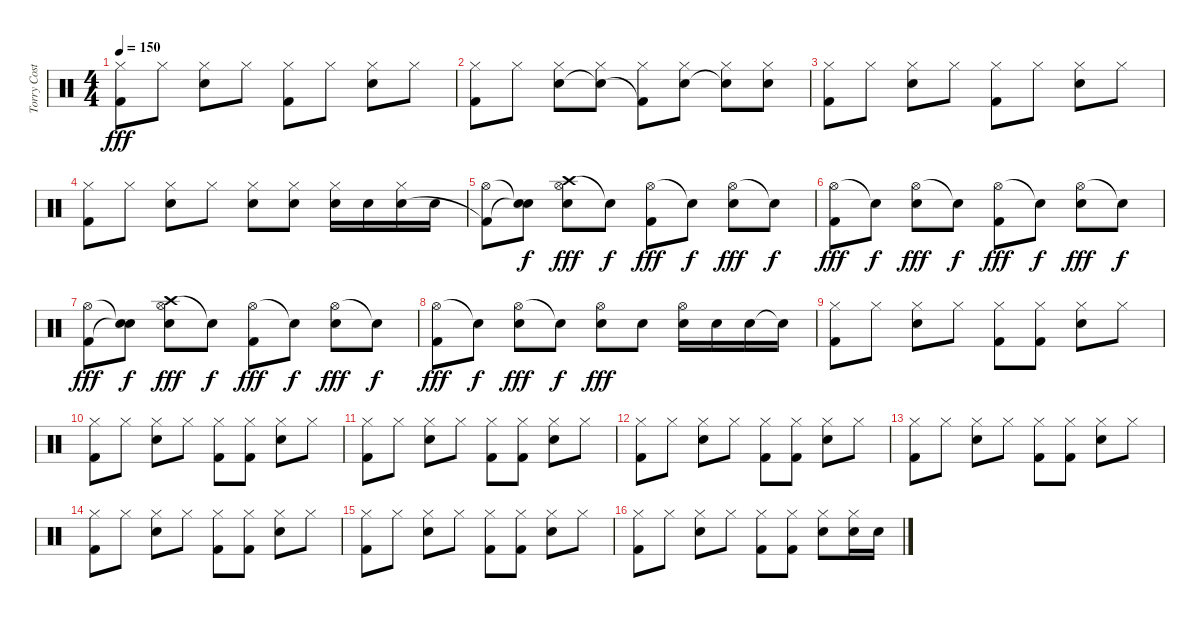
\track ("Torry Costellano" "Torry Cost") {instrument percussion}
\staff {score}
\articulation defaults
\ts (4 4)
\tempo 150
\clef neutral
\ks c
("Hi-Hat (closed)" "Kick (hit) 2").8{dy fff} "Hi-Hat (closed)".8 ("Hi-Hat (closed)" "Electric Snare (hit)").8 "Hi-Hat (closed)".8 ("Hi-Hat (closed)" "Kick (hit) 2").8 "Hi-Hat (closed)".8 ("Hi-Hat (closed)" "Electric Snare (hit)").8 "Hi-Hat (closed)".8 |
("Hi-Hat (closed)" "Kick (hit) 2").8 "Hi-Hat (closed)".8 ("Hi-Hat (closed)" "Electric Snare (hit)").8 ("Hi-Hat (closed)" "Electric Snare (hit)"{t}).8 ("Hi-Hat (closed)" "Kick (hit) 2"{t}).8 ("Hi-Hat (closed)" "Electric Snare (hit)").8 ("Hi-Hat (closed)" "Electric Snare (hit)"{t}).8 ("Hi-Hat (closed)" "Electric Snare (hit)").8 |
("Hi-Hat (closed)" "Kick (hit) 2").8 "Hi-Hat (closed)".8 ("Hi-Hat (closed)" "Electric Snare (hit)").8 "Hi-Hat (closed)".8 ("Hi-Hat (closed)" "Kick (hit) 2").8 "Hi-Hat (closed)".8 ("Hi-Hat (closed)" "Electric Snare (hit)").8 "Hi-Hat (closed)".8 |
("Hi-Hat (closed)" "Kick (hit) 2").8 "Hi-Hat (closed)".8 ("Hi-Hat (closed)" "Electric Snare (hit)").8 "Hi-Hat (closed)".8 ("Hi-Hat (closed)" "Electric Snare (hit)").8 ("Hi-Hat (closed)" "Electric Snare (hit)").8 ("Hi-Hat (closed)" "Electric Snare (hit)").16 "Electric Snare (hit)".16 ("Hi-Hat (closed)" "Electric Snare (hit)").16 "Electric Snare (hit)".16 |
("Hi-Hat (open)" "Kick (hit) 2"{t}).8 ("Snare (hit)"{t} "Snare (hit)"{t}).8{dy f} ("Crash high (hit)" "Hi-Hat (open)" "Electric Snare (hit)").8{dy fff} "Snare (hit)"{t}.8{dy f} ("Hi-Hat (open)" "Kick (hit) 2").8{dy fff} "Snare (hit)"{t}.8{dy f} ("Hi-Hat (open)" "Electric Snare (hit)").8{dy fff} "Snare (hit)"{t}.8{dy f} |
("Hi-Hat (open)" "Kick (hit) 2").8{dy fff} "Snare (hit)"{t}.8{dy f} ("Hi-Hat (open)" "Electric Snare (hit)").8{dy fff} "Snare (hit)"{t}.8{dy f} ("Hi-Hat (open)" "Kick (hit) 2").8{dy fff} "Snare (hit)"{t}.8{dy f} ("Hi-Hat (open)" "Electric Snare (hit)").8{dy fff} "Snare (hit)"{t}.8{dy f} |
("Hi-Hat (open)" "Kick (hit) 2").8{dy fff} ("Snare (hit)"{t} "Snare (hit)"{t}).8{dy f} ("Crash high (hit)" "Hi-Hat (open)" "Electric Snare (hit)").8{dy fff} "Snare (hit)"{t}.8{dy f} ("Hi-Hat (open)" "Kick (hit) 2").8{dy fff} "Snare (hit)"{t}.8{dy f} ("Hi-Hat (open)" "Electric Snare (hit)").8{dy fff} "Snare (hit)"{t}.8{dy f} |
("Hi-Hat (open)" "Kick (hit) 2").8{dy fff} "Snare (hit)"{t}.8{dy f} ("Hi-Hat (open)" "Electric Snare (hit)").8{dy fff} "Snare (hit)"{t}.8{dy f} ("Hi-Hat (open)" "Electric Snare (hit)").8{dy fff} "Electric Snare (hit)".8 ("Hi-Hat (open)" "Electric Snare (hit)").16 "Electric Snare (hit)".16 "Electric Snare (hit)".16 "Snare (hit)"{t}.16 |
("Hi-Hat (closed)" "Kick (hit) 2").8 "Hi-Hat (closed)".8 ("Hi-Hat (closed)" "Electric Snare (hit)").8 "Hi-Hat (closed)".8 ("Hi-Hat (closed)" "Kick (hit) 2").8 ("Hi-Hat (closed)" "Kick (hit) 2").8 ("Hi-Hat (closed)" "Electric Snare (hit)").8 "Hi-Hat (closed)".8 |
("Hi-Hat (closed)" "Kick (hit) 2").8 "Hi-Hat (closed)".8 ("Hi-Hat (closed)" "Electric Snare (hit)").8 "Hi-Hat (closed)".8 ("Hi-Hat (closed)" "Kick (hit) 2").8 ("Hi-Hat (closed)" "Kick (hit) 2").8 ("Hi-Hat (closed)" "Electric Snare (hit)").8 "Hi-Hat (closed)".8 |
("Hi-Hat (closed)" "Kick (hit) 2").8 "Hi-Hat (closed)".8 ("Hi-Hat (closed)" "Electric Snare (hit)").8 "Hi-Hat (closed)".8 ("Hi-Hat (closed)" "Kick (hit) 2").8 ("Hi-Hat (closed)" "Kick (hit) 2").8 ("Hi-Hat (closed)" "Electric Snare (hit)").8 "Hi-Hat (closed)".8 |
("Hi-Hat (closed)" "Kick (hit) 2").8 "Hi-Hat (closed)".8 ("Hi-Hat (closed)" "Electric Snare (hit)").8 "Hi-Hat (closed)".8 ("Hi-Hat (closed)" "Kick (hit) 2").8 ("Hi-Hat (closed)" "Kick (hit) 2").8 ("Hi-Hat (closed)" "Electric Snare (hit)").8 "Hi-Hat (closed)".8 |
("Hi-Hat (closed)" "Kick (hit) 2").8 "Hi-Hat (closed)".8 ("Hi-Hat (closed)" "Electric Snare (hit)").8 "Hi-Hat (closed)".8 ("Hi-Hat (closed)" "Kick (hit) 2").8 ("Hi-Hat (closed)" "Kick (hit) 2").8 ("Hi-Hat (closed)" "Electric Snare (hit)").8 "Hi-Hat (closed)".8 |
("Hi-Hat (closed)" "Kick (hit) 2").8 "Hi-Hat (closed)".8 ("Hi-Hat (closed)" "Electric Snare (hit)").8 "Hi-Hat (closed)".8 ("Hi-Hat (closed)" "Kick (hit) 2").8 ("Hi-Hat (closed)" "Kick (hit) 2").8 ("Hi-Hat (closed)" "Electric Snare (hit)").8 "Hi-Hat (closed)".8 |
("Hi-Hat (closed)" "Kick (hit) 2").8 "Hi-Hat (closed)".8 ("Hi-Hat (closed)" "Electric Snare (hit)").8 "Hi-Hat (closed)".8 ("Hi-Hat (closed)" "Kick (hit) 2").8 ("Hi-Hat (closed)" "Kick (hit) 2").8 ("Hi-Hat (closed)" "Electric Snare (hit)").8 "Hi-Hat (closed)".8 |
("Hi-Hat (closed)" "Kick (hit) 2").8 "Hi-Hat (closed)".8 ("Hi-Hat (closed)" "Electric Snare (hit)").8 "Hi-Hat (closed)".8 ("Hi-Hat (closed)" "Kick (hit) 2").8 ("Hi-Hat (closed)" "Kick (hit) 2").8 ("Hi-Hat (closed)" "Electric Snare (hit)").8 ("Hi-Hat (closed)" "Electric Snare (hit)").16 "Electric Snare (hit)".16
